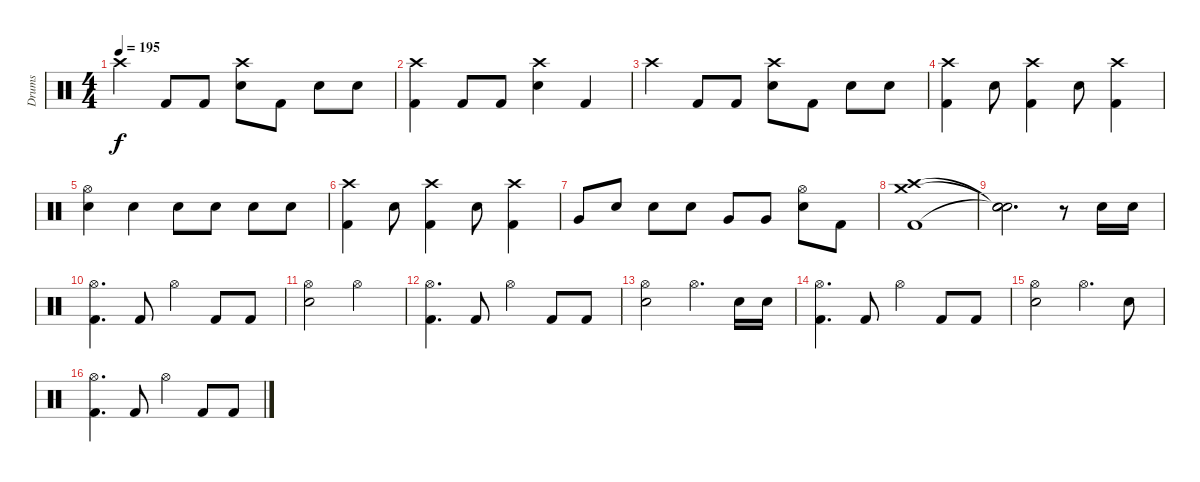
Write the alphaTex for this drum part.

\track ("Drums" "Drums") {instrument percussion}
\staff {score}
\articulation defaults
\ts (4 4)
\tempo 195
\clef neutral
\ks c "Crash high (hit)".4{dy f} "Kick (hit) 2".8 "Kick (hit) 2".8
("Crash high (hit)" "Electric Snare (hit)").8 "Kick (hit) 2".8 "Electric Snare (hit)".8 "Electric Snare (hit)".8 |
("Crash high (hit)" "Kick (hit) 2").4 "Kick (hit) 2".8 "Kick (hit) 2".8 ("Crash high (hit)" "Electric Snare (hit)").4 "Kick (hit) 2".4 |
"Crash high (hit)".4 "Kick (hit) 2".8 "Kick (hit) 2".8 ("Crash high (hit)" "Electric Snare (hit)").8 "Kick (hit) 2".8 "Electric Snare (hit)".8 "Electric Snare (hit)".8 |
("Crash high (hit)" "Kick (hit) 2").4 "Electric Snare (hit)".8 ("Crash high (hit)" "Kick (hit) 2").4 "Electric Snare (hit)".8 ("Crash high (hit)" "Kick (hit) 2").4 |
("Hi-Hat (open)" "Electric Snare (hit)").4 "Electric Snare (hit)".4 "Electric Snare (hit)".8 "Electric Snare (hit)".8 "Electric Snare (hit)".8 "Electric Snare (hit)".8 |
("Crash high (hit)" "Kick (hit) 2").4 "Electric Snare (hit)".8 ("Crash high (hit)" "Kick (hit) 2").4 "Electric Snare (hit)".8 ("Crash high (hit)" "Kick (hit) 2").4 |
"Very Low Tom (hit)".8 "Electric Snare (hit)".8 "Electric Snare (hit)".8 "Electric Snare (hit)".8 "Very Low Tom (hit)".8 "Very Low Tom (hit)".8 ("Hi-Hat (open)" "Electric Snare (hit)").8 "Kick (hit) 2".8 |
("Crash medium (hit)" "Crash high (hit)" "Kick (hit) 2").1 |
("Snare (hit)"{t} "Snare (hit)"{t} "Snare (hit)"{t}).2{d} r.8 "Electric Snare (hit)".16 "Electric Snare (hit)".16 |
("Hi-Hat (open)" "Kick (hit) 2").4{d} "Kick (hit) 2".8 "Hi-Hat (open)".4 "Kick (hit) 2".8 "Kick (hit) 2".8 |
("Hi-Hat (open)" "Electric Snare (hit)").2 "Hi-Hat (open)".2 |
("Hi-Hat (open)" "Kick (hit) 2").4{d} "Kick (hit) 2".8 "Hi-Hat (open)".4 "Kick (hit) 2".8 "Kick (hit) 2".8 |
("Hi-Hat (open)" "Electric Snare (hit)").2 "Hi-Hat (open)".4{d} "Electric Snare (hit)".16 "Electric Snare (hit)".16 |
("Hi-Hat (open)" "Kick (hit) 2").4{d} "Kick (hit) 2".8 "Hi-Hat (open)".4 "Kick (hit) 2".8 "Kick (hit) 2".8 |
("Hi-Hat (open)" "Electric Snare (hit)").2 "Hi-Hat (open)".4{d} "Electric Snare (hit)".8 |
("Hi-Hat (open)" "Kick (hit) 2").4{d} "Kick (hit) 2".8 "Hi-Hat (open)".4 "Kick (hit) 2".8 "Kick (hit) 2".8
